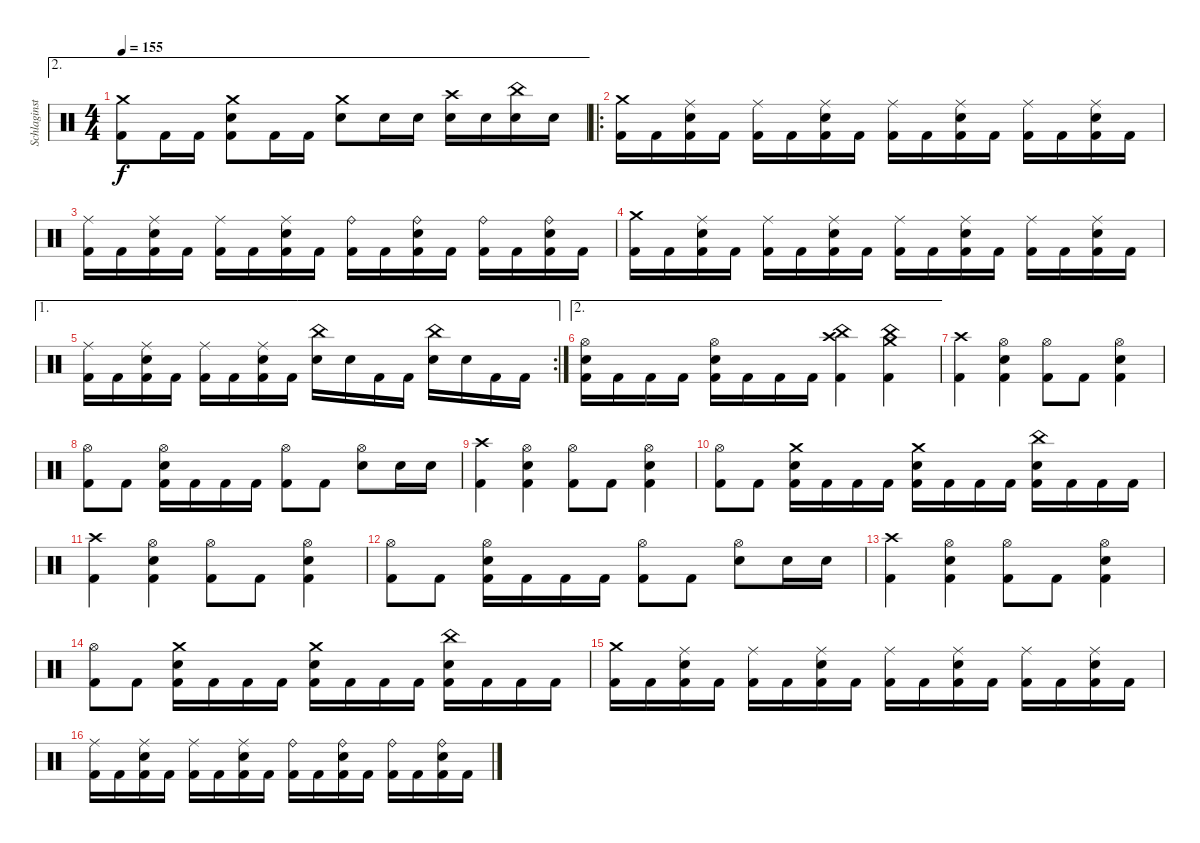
\track ("Schlaginstrumente - Auswahl" "Schlaginst") {instrument percussion}
\staff {score}
\articulation defaults
\ae 2
\ts (4 4)
\tempo 155
\clef neutral
\ks c
("Crash medium (hit)" "Kick (hit) 2").8{dy f} "Kick (hit) 2".16 "Kick (hit) 2".16 ("Crash medium (hit)" "Electric Snare (hit)" "Kick (hit) 2").8 "Kick (hit) 2".16 "Kick (hit) 2".16 ("Crash medium (hit)" "Electric Snare (hit)").8 "Electric Snare (hit)".16 "Electric Snare (hit)".16 ("Crash high (hit)" "Electric Snare (hit)").16 "Electric Snare (hit)".16 ("China (hit)" "Electric Snare (hit)").16 "Electric Snare (hit)".16 |
\ro
("Crash medium (hit)" "Kick (hit) 2").16 "Kick (hit) 2".16 ("Ride (middle)" "Electric Snare (hit)" "Kick (hit) 2").16 "Kick (hit) 2".16 ("Ride (middle)" "Kick (hit) 2").16 "Kick (hit) 2".16 ("Ride (middle)" "Electric Snare (hit)" "Kick (hit) 2").16 "Kick (hit) 2".16 ("Ride (middle)" "Kick (hit) 2").16 "Kick (hit) 2".16 ("Ride (middle)" "Electric Snare (hit)" "Kick (hit) 2").16 "Kick (hit) 2".16 ("Ride (middle)" "Kick (hit) 2").16 "Kick (hit) 2".16 ("Ride (middle)" "Electric Snare (hit)" "Kick (hit) 2").16 "Kick (hit) 2".16 |
("Ride (middle)" "Kick (hit) 2").16 "Kick (hit) 2".16 ("Ride (middle)" "Electric Snare (hit)" "Kick (hit) 2").16 "Kick (hit) 2".16 ("Ride (middle)" "Kick (hit) 2").16 "Kick (hit) 2".16 ("Ride (middle)" "Electric Snare (hit)" "Kick (hit) 2").16 "Kick (hit) 2".16 ("Ride (bell)" "Kick (hit) 2").16 "Kick (hit) 2".16 ("Ride (bell)" "Electric Snare (hit)" "Kick (hit) 2").16 "Kick (hit) 2".16 ("Ride (bell)" "Kick (hit) 2").16 "Kick (hit) 2".16 ("Ride (bell)" "Electric Snare (hit)" "Kick (hit) 2").16 "Kick (hit) 2".16 |
("Crash medium (hit)" "Kick (hit) 2").16 "Kick (hit) 2".16 ("Ride (middle)" "Electric Snare (hit)" "Kick (hit) 2").16 "Kick (hit) 2".16 ("Ride (middle)" "Kick (hit) 2").16 "Kick (hit) 2".16 ("Ride (middle)" "Electric Snare (hit)" "Kick (hit) 2").16 "Kick (hit) 2".16 ("Ride (middle)" "Kick (hit) 2").16 "Kick (hit) 2".16 ("Ride (middle)" "Electric Snare (hit)" "Kick (hit) 2").16 "Kick (hit) 2".16 ("Ride (middle)" "Kick (hit) 2").16 "Kick (hit) 2".16 ("Ride (middle)" "Electric Snare (hit)" "Kick (hit) 2").16 "Kick (hit) 2".16 |
\ae 1
\rc 2
("Ride (middle)" "Kick (hit) 2").16 "Kick (hit) 2".16 ("Ride (middle)" "Electric Snare (hit)" "Kick (hit) 2").16 "Kick (hit) 2".16 ("Ride (middle)" "Kick (hit) 2").16 "Kick (hit) 2".16 ("Ride (middle)" "Electric Snare (hit)" "Kick (hit) 2").16 "Kick (hit) 2".16 ("China (hit)" "Electric Snare (hit)").16 "Electric Snare (hit)".16 "Kick (hit) 2".16 "Kick (hit) 2".16 ("China (hit)" "Electric Snare (hit)").16 "Electric Snare (hit)".16 "Kick (hit) 2".16 "Kick (hit) 2".16 |
\ae 2
("Hi-Hat (open)" "Electric Snare (hit)" "Kick (hit) 2").16 "Kick (hit) 2".16 "Kick (hit) 2".16 "Kick (hit) 2".16 ("Hi-Hat (open)" "Electric Snare (hit)" "Kick (hit) 2").16 "Kick (hit) 2".16 "Kick (hit) 2".16 "Kick (hit) 2".16 ("Crash high (hit)" "China (hit)" "Kick (hit) 2").4 ("Crash medium (hit)" "China (hit)" "Kick (hit) 2").4 |
("Crash high (hit)" "Kick (hit) 2").4 ("Hi-Hat (open)" "Electric Snare (hit)" "Kick (hit) 2").4 ("Hi-Hat (open)" "Kick (hit) 2").8 "Kick (hit) 2".8 ("Hi-Hat (open)" "Electric Snare (hit)" "Kick (hit) 2").4 |
("Hi-Hat (open)" "Kick (hit) 2").8 "Kick (hit) 2".8 ("Hi-Hat (open)" "Electric Snare (hit)" "Kick (hit) 2").16 "Kick (hit) 2".16 "Kick (hit) 2".16 "Kick (hit) 2".16 ("Hi-Hat (open)" "Kick (hit) 2").8 "Kick (hit) 2".8 ("Hi-Hat (open)" "Electric Snare (hit)").8 "Electric Snare (hit)".16 "Electric Snare (hit)".16 |
("Crash high (hit)" "Kick (hit) 2").4 ("Hi-Hat (open)" "Electric Snare (hit)" "Kick (hit) 2").4 ("Hi-Hat (open)" "Kick (hit) 2").8 "Kick (hit) 2".8 ("Hi-Hat (open)" "Electric Snare (hit)" "Kick (hit) 2").4 |
("Hi-Hat (open)" "Kick (hit) 2").8 "Kick (hit) 2".8 ("Crash medium (hit)" "Electric Snare (hit)" "Kick (hit) 2").16 "Kick (hit) 2".16 "Kick (hit) 2".16 "Kick (hit) 2".16 ("Crash medium (hit)" "Electric Snare (hit)" "Kick (hit) 2").16 "Kick (hit) 2".16 "Kick (hit) 2".16 "Kick (hit) 2".16 ("China (hit)" "Electric Snare (hit)" "Kick (hit) 2").16 "Kick (hit) 2".16 "Kick (hit) 2".16 "Kick (hit) 2".16 |
("Crash high (hit)" "Kick (hit) 2").4 ("Hi-Hat (open)" "Electric Snare (hit)" "Kick (hit) 2").4 ("Hi-Hat (open)" "Kick (hit) 2").8 "Kick (hit) 2".8 ("Hi-Hat (open)" "Electric Snare (hit)" "Kick (hit) 2").4 |
("Hi-Hat (open)" "Kick (hit) 2").8 "Kick (hit) 2".8 ("Hi-Hat (open)" "Electric Snare (hit)" "Kick (hit) 2").16 "Kick (hit) 2".16 "Kick (hit) 2".16 "Kick (hit) 2".16 ("Hi-Hat (open)" "Kick (hit) 2").8 "Kick (hit) 2".8 ("Hi-Hat (open)" "Electric Snare (hit)").8 "Electric Snare (hit)".16 "Electric Snare (hit)".16 |
("Crash high (hit)" "Kick (hit) 2").4 ("Hi-Hat (open)" "Electric Snare (hit)" "Kick (hit) 2").4 ("Hi-Hat (open)" "Kick (hit) 2").8 "Kick (hit) 2".8 ("Hi-Hat (open)" "Electric Snare (hit)" "Kick (hit) 2").4 |
("Hi-Hat (open)" "Kick (hit) 2").8 "Kick (hit) 2".8 ("Crash medium (hit)" "Electric Snare (hit)" "Kick (hit) 2").16 "Kick (hit) 2".16 "Kick (hit) 2".16 "Kick (hit) 2".16 ("Crash medium (hit)" "Electric Snare (hit)" "Kick (hit) 2").16 "Kick (hit) 2".16 "Kick (hit) 2".16 "Kick (hit) 2".16 ("China (hit)" "Electric Snare (hit)" "Kick (hit) 2").16 "Kick (hit) 2".16 "Kick (hit) 2".16 "Kick (hit) 2".16 |
("Crash medium (hit)" "Kick (hit) 2").16 "Kick (hit) 2".16 ("Ride (middle)" "Electric Snare (hit)" "Kick (hit) 2").16 "Kick (hit) 2".16 ("Ride (middle)" "Kick (hit) 2").16 "Kick (hit) 2".16 ("Ride (middle)" "Electric Snare (hit)" "Kick (hit) 2").16 "Kick (hit) 2".16 ("Ride (middle)" "Kick (hit) 2").16 "Kick (hit) 2".16 ("Ride (middle)" "Electric Snare (hit)" "Kick (hit) 2").16 "Kick (hit) 2".16 ("Ride (middle)" "Kick (hit) 2").16 "Kick (hit) 2".16 ("Ride (middle)" "Electric Snare (hit)" "Kick (hit) 2").16 "Kick (hit) 2".16 |
("Ride (middle)" "Kick (hit) 2").16 "Kick (hit) 2".16 ("Ride (middle)" "Electric Snare (hit)" "Kick (hit) 2").16 "Kick (hit) 2".16 ("Ride (middle)" "Kick (hit) 2").16 "Kick (hit) 2".16 ("Ride (middle)" "Electric Snare (hit)" "Kick (hit) 2").16 "Kick (hit) 2".16 ("Ride (bell)" "Kick (hit) 2").16 "Kick (hit) 2".16 ("Ride (bell)" "Electric Snare (hit)" "Kick (hit) 2").16 "Kick (hit) 2".16 ("Ride (bell)" "Kick (hit) 2").16 "Kick (hit) 2".16 ("Ride (bell)" "Electric Snare (hit)" "Kick (hit) 2").16 "Kick (hit) 2".16
